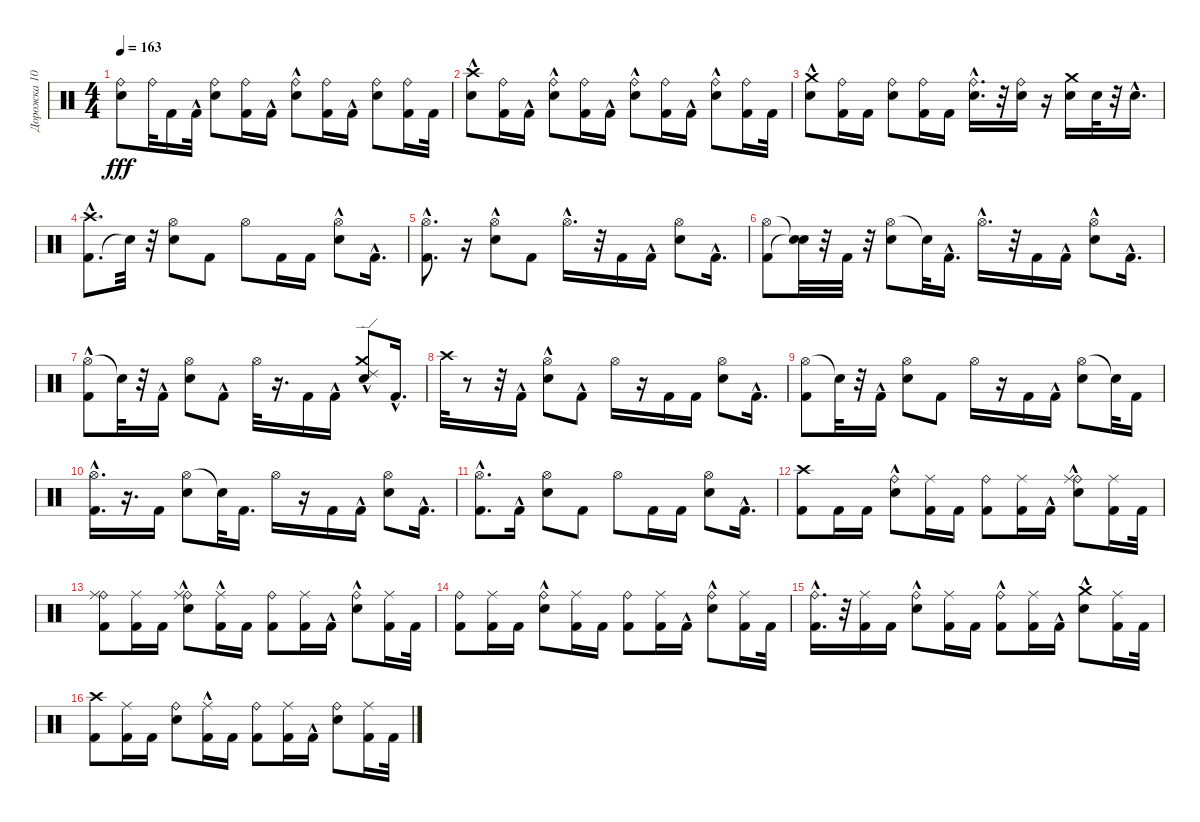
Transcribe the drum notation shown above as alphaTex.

\track ("Дорожка 10" "Дорожка 10") {instrument percussion}
\staff {score}
\articulation defaults
\ts (4 4)
\tempo 163
\clef neutral
\ks c
("Ride (bell)" "Electric Snare (hit)").8{dy fff} "Ride (bell)".32 "Kick (hit) 2".16 "Kick (hit) 2"{hac}.32 ("Ride (bell)" "Electric Snare (hit)").8 ("Ride (bell)" "Kick (hit) 2").16 "Kick (hit) 2"{hac}.16 ("Ride (bell)" "Electric Snare (hit)"{hac}).8 ("Ride (bell)" "Kick (hit) 2").16 "Kick (hit) 2"{hac}.16 ("Ride (bell)" "Electric Snare (hit)").8 ("Ride (bell)" "Kick (hit) 2").16 "Kick (hit) 2".32 |
("Crash high (hit)" "Electric Snare (hit)"{hac}).8 ("Ride (bell)" "Kick (hit) 2").16 "Kick (hit) 2"{hac}.16 ("Ride (bell)" "Electric Snare (hit)"{hac}).8 ("Ride (bell)" "Kick (hit) 2").16 "Kick (hit) 2"{hac}.16 ("Ride (bell)" "Electric Snare (hit)"{hac}).8 ("Ride (bell)" "Kick (hit) 2").16 "Kick (hit) 2"{hac}.16 ("Ride (bell)" "Electric Snare (hit)"{hac}).8 ("Ride (bell)" "Kick (hit) 2").16 "Kick (hit) 2".32 |
("Crash medium (hit)" "Electric Snare (hit)"{hac}).8 ("Ride (bell)" "Kick (hit) 2").16 "Kick (hit) 2".16 ("Ride (bell)" "Electric Snare (hit)").8 ("Ride (bell)" "Kick (hit) 2").16 "Kick (hit) 2".16 ("Ride (bell)" "Electric Snare (hit)"{hac}).16{d} r.32 ("Ride (bell)" "Electric Snare (hit)").16 r.16 ("Crash medium (hit)" "Electric Snare (hit)").16 "Electric Snare (hit)".32 r.32 "Electric Snare (hit)"{hac}.16{d} |
("Kick (hit) 2"{hac} "Crash high (hit)").8{d} "Snare (hit)"{t}.32 r.32 ("Electric Snare (hit)" "Hi-Hat (open)").8 "Kick (hit) 2".8 "Hi-Hat (open)".8 "Kick (hit) 2".16 "Kick (hit) 2".16 ("Electric Snare (hit)"{hac} "Hi-Hat (open)"{hac}).8 "Kick (hit) 2"{hac}.16{d} |
("Kick (hit) 2" "Hi-Hat (open)"{hac}).8{d} r.16 ("Hi-Hat (open)"{hac} "Electric Snare (hit)").8 "Kick (hit) 2".8 "Hi-Hat (open)"{hac}.16{d} r.32 "Kick (hit) 2".16 "Kick (hit) 2"{hac}.16 ("Hi-Hat (open)" "Electric Snare (hit)").8 "Kick (hit) 2"{hac}.16{d} |
("Hi-Hat (open)" "Kick (hit) 2").8 ("Snare (hit)"{t} "Snare (hit)"{t}).32 r.32 "Kick (hit) 2".32 r.32 ("Hi-Hat (open)" "Electric Snare (hit)").8 "Snare (hit)"{t}.32 "Kick (hit) 2"{hac}.16{d} "Hi-Hat (open)"{hac}.16{d} r.32 "Kick (hit) 2".16 "Kick (hit) 2"{hac}.16 ("Hi-Hat (open)" "Electric Snare (hit)"{hac}).8 "Kick (hit) 2"{hac}.16{d} |
("Hi-Hat (open)" "Kick (hit) 2"{hac}).8 "Snare (hit)"{t}.32 r.32 "Kick (hit) 2"{hac}.16 ("Hi-Hat (open)" "Electric Snare (hit)").8 "Kick (hit) 2"{hac}.8 "Hi-Hat (open)".32 r.16{d} "Kick (hit) 2".16 "Kick (hit) 2"{hac}.16 ("Electric Snare (hit)"{hac} "Ride (edge) 2" "Crash medium (hit)").8 "Kick (hit) 2"{hac}.16{d} |
"Crash high (hit)".32 r.8 r.32 "Kick (hit) 2"{hac}.16 ("Hi-Hat (open)"{hac} "Electric Snare (hit)").8 "Kick (hit) 2"{hac}.8 "Hi-Hat (open)".16 r.16 "Kick (hit) 2".16 "Kick (hit) 2".16 ("Hi-Hat (open)" "Electric Snare (hit)").8 "Kick (hit) 2"{hac}.16{d} |
("Hi-Hat (open)" "Kick (hit) 2").8 "Snare (hit)"{t}.32 r.32 "Kick (hit) 2"{hac}.16 ("Hi-Hat (open)" "Electric Snare (hit)").8 "Kick (hit) 2".8 "Hi-Hat (open)".16 r.16 "Kick (hit) 2".16 "Kick (hit) 2"{hac}.16 ("Hi-Hat (open)" "Electric Snare (hit)").8 "Snare (hit)"{t}.32 "Kick (hit) 2".16 |
("Hi-Hat (open)" "Kick (hit) 2"{hac}).16{d} r.16{d} "Kick (hit) 2".16 ("Hi-Hat (open)" "Electric Snare (hit)").8 "Snare (hit)"{t}.32 "Kick (hit) 2".16{d} "Hi-Hat (open)".16 r.16 "Kick (hit) 2".16 "Kick (hit) 2"{hac}.16 ("Hi-Hat (open)" "Electric Snare (hit)").8 "Kick (hit) 2"{hac}.16{d} |
("Hi-Hat (open)"{hac} "Kick (hit) 2"{hac}).8{d} "Kick (hit) 2"{hac}.16 ("Hi-Hat (open)" "Electric Snare (hit)").8 "Kick (hit) 2".8 "Hi-Hat (open)".8 "Kick (hit) 2".16 "Kick (hit) 2".16 ("Hi-Hat (open)" "Electric Snare (hit)").8 "Kick (hit) 2"{hac}.16{d} |
("Kick (hit) 2" "Crash high (hit)").8 "Kick (hit) 2".16 "Kick (hit) 2".16 ("Electric Snare (hit)" "Ride (bell)"{hac}).8 ("Kick (hit) 2" "Ride (middle)").16 "Kick (hit) 2".16 ("Kick (hit) 2" "Ride (bell)").8 ("Kick (hit) 2" "Ride (middle)").16 "Kick (hit) 2"{hac}.16 ("Electric Snare (hit)"{hac} "Ride (bell)"{hac} "Ride (middle)").8 ("Kick (hit) 2" "Ride (middle)").16 "Kick (hit) 2".32 |
("Ride (bell)" "Ride (middle)" "Kick (hit) 2").8 ("Kick (hit) 2" "Ride (middle)").16 "Kick (hit) 2".16 ("Electric Snare (hit)"{hac} "Ride (bell)" "Ride (middle)").8 ("Kick (hit) 2" "Ride (middle)"{hac}).16 "Kick (hit) 2".16 ("Ride (bell)" "Kick (hit) 2").8 ("Ride (middle)" "Kick (hit) 2").16 "Kick (hit) 2"{hac}.16 ("Electric Snare (hit)"{hac} "Ride (bell)").8 ("Ride (middle)" "Kick (hit) 2").16 "Kick (hit) 2".32 |
("Ride (bell)" "Kick (hit) 2").8 ("Ride (middle)" "Kick (hit) 2").16 "Kick (hit) 2".16 ("Electric Snare (hit)"{hac} "Ride (bell)").8 ("Ride (middle)" "Kick (hit) 2").16 "Kick (hit) 2".16 ("Ride (bell)" "Kick (hit) 2").8 ("Ride (middle)" "Kick (hit) 2").16 "Kick (hit) 2"{hac}.16 ("Electric Snare (hit)"{hac} "Ride (bell)").8 ("Ride (middle)" "Kick (hit) 2").16 "Kick (hit) 2".32 |
("Ride (bell)"{hac} "Kick (hit) 2").16{d} r.32 ("Ride (middle)" "Kick (hit) 2").16 "Kick (hit) 2".16 ("Ride (bell)" "Electric Snare (hit)"{hac}).8 ("Ride (middle)" "Kick (hit) 2").16 "Kick (hit) 2".16 ("Ride (bell)"{hac} "Kick (hit) 2").8 ("Ride (middle)" "Kick (hit) 2").16 "Kick (hit) 2"{hac}.16 ("Electric Snare (hit)"{hac} "Crash medium (hit)").8 ("Ride (middle)" "Kick (hit) 2").16 "Kick (hit) 2".32 |
("Crash high (hit)" "Kick (hit) 2").8 ("Ride (middle)" "Kick (hit) 2").16 "Kick (hit) 2".16 ("Ride (bell)" "Electric Snare (hit)").8 ("Ride (middle)"{hac} "Kick (hit) 2").16 "Kick (hit) 2".16 ("Ride (bell)" "Kick (hit) 2").8 ("Ride (middle)" "Kick (hit) 2").16 "Kick (hit) 2"{hac}.16 ("Ride (bell)" "Electric Snare (hit)").8 ("Ride (middle)" "Kick (hit) 2").16 "Kick (hit) 2".32
